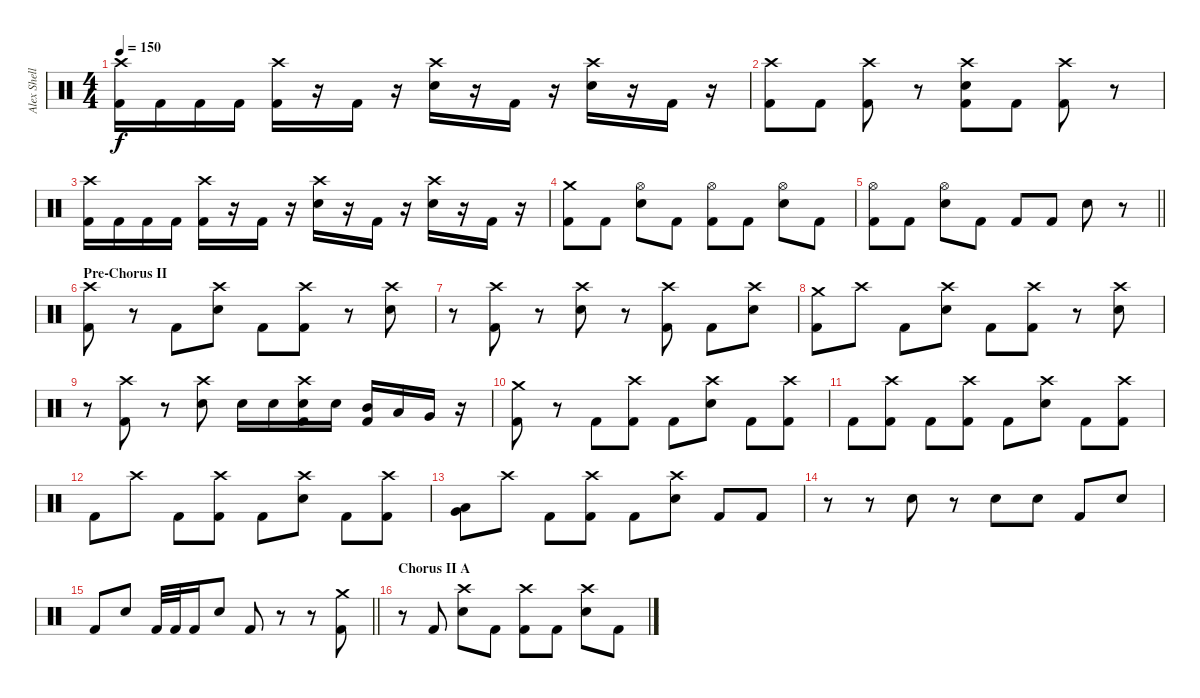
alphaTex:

\track ("Alex Shellnutt" "Alex Shell") {instrument percussion}
\staff {score}
\articulation defaults
\ts (4 4)
\tempo 150
\clef neutral
\ks c
("Crash high (hit)" "Kick (hit) 2").16{dy f} "Kick (hit) 2".16 "Kick (hit) 2".16 "Kick (hit) 2".16 ("Crash high (hit)" "Kick (hit) 2").16 r.16 "Kick (hit) 2".16 r.16 ("Crash high (hit)" "Snare (hit) 2").16 r.16 "Kick (hit) 2".16 r.16 ("Crash high (hit)" "Snare (hit) 2").16 r.16 "Kick (hit) 2".16 r.16 |
("Crash high (hit)" "Kick (hit) 2").8 "Kick (hit) 2".8 ("Crash high (hit)" "Kick (hit) 2").8 r.8 ("Crash high (hit)" "Snare (hit) 2" "Kick (hit) 2").8 "Kick (hit) 2".8 ("Crash high (hit)" "Kick (hit) 2").8 r.8 |
("Crash high (hit)" "Kick (hit) 2").16 "Kick (hit) 2".16 "Kick (hit) 2".16 "Kick (hit) 2".16 ("Crash high (hit)" "Kick (hit) 2").16 r.16 "Kick (hit) 2".16 r.16 ("Crash high (hit)" "Snare (hit) 2").16 r.16 "Kick (hit) 2".16 r.16 ("Crash high (hit)" "Snare (hit) 2").16 r.16 "Kick (hit) 2".16 r.16 |
("Crash medium (hit)" "Kick (hit) 2").8 "Kick (hit) 2".8 ("Hi-Hat (open)" "Snare (hit) 2").8 "Kick (hit) 2".8 ("Hi-Hat (open)" "Kick (hit) 2").8 "Kick (hit) 2".8 ("Hi-Hat (open)" "Snare (hit) 2").8 "Kick (hit) 2".8 |
\barLineRight lightlight
("Hi-Hat (open)" "Kick (hit) 2").8 "Kick (hit) 2".8 ("Hi-Hat (open)" "Snare (hit) 2").8 "Kick (hit) 2".8 "Kick (hit) 2".8 "Kick (hit) 2".8 "Snare (hit) 2".8 r.8 |
\section ("" "Pre-Chorus II")
("Crash high (hit)" "Kick (hit) 2").8 r.8 "Kick (hit) 2".8 ("Crash high (hit)" "Snare (hit) 2").8 "Kick (hit) 2".8 ("Crash high (hit)" "Kick (hit) 2").8 r.8 ("Crash high (hit)" "Snare (hit) 2").8 |
r.8 ("Crash high (hit)" "Kick (hit) 2").8 r.8 ("Crash high (hit)" "Snare (hit) 2").8 r.8 ("Crash high (hit)" "Kick (hit) 2").8 "Kick (hit) 2".8 ("Crash high (hit)" "Snare (hit) 2").8 |
("Crash medium (hit)" "Kick (hit) 2").8 "Crash high (hit)".8 "Kick (hit) 2".8 ("Crash high (hit)" "Snare (hit) 2").8 "Kick (hit) 2".8 ("Crash high (hit)" "Kick (hit) 2").8 r.8 ("Crash high (hit)" "Snare (hit) 2").8 |
r.8 ("Crash high (hit)" "Kick (hit) 2").8 r.8 ("Crash high (hit)" "Snare (hit) 2").8 "Snare (hit) 2".16 "Snare (hit) 2".16 ("Crash high (hit)" "Snare (hit) 2" "Kick (hit) 2").16 "Snare (hit) 2".16 ("Mid Tom (hit)" "Kick (hit) 2").16 "Low Tom (hit)".16 "Very Low Tom (hit)".16 r.16 |
("Crash medium (hit)" "Kick (hit) 2").8 r.8 "Kick (hit) 2".8 ("Crash high (hit)" "Kick (hit) 2").8 "Kick (hit) 2".8 ("Crash high (hit)" "Snare (hit) 2").8 "Kick (hit) 2".8 ("Crash high (hit)" "Kick (hit) 2").8 |
"Kick (hit) 2".8 ("Crash high (hit)" "Kick (hit) 2").8 "Kick (hit) 2".8 ("Crash high (hit)" "Kick (hit) 2").8 "Kick (hit) 2".8 ("Crash high (hit)" "Snare (hit) 2").8 "Kick (hit) 2".8 ("Crash high (hit)" "Kick (hit) 2").8 |
"Kick (hit) 2".8 "Crash high (hit)".8 "Kick (hit) 2".8 ("Crash high (hit)" "Kick (hit) 2").8 "Kick (hit) 2".8 ("Crash high (hit)" "Snare (hit) 2").8 "Kick (hit) 2".8 ("Crash high (hit)" "Kick (hit) 2").8 |
("Low Floor Tom (hit)" "Very Low Tom (hit)").8 "Crash high (hit)".8 "Kick (hit) 2".8 ("Crash high (hit)" "Kick (hit) 2").8 "Kick (hit) 2".8 ("Crash high (hit)" "Snare (hit) 2").8 "Kick (hit) 2".8 "Kick (hit) 2".8 |
r.8 r.8 "Snare (hit) 2".8 r.8 "Snare (hit) 2".8 "Snare (hit) 2".8 "Kick (hit) 2".8 "Snare (hit) 2".8 |
\barLineRight lightlight "Kick (hit) 2".8 "Snare (hit) 2".8 "Kick (hit) 2".32 "Kick (hit) 2".32 "Kick (hit) 2".16 "Snare (hit) 2".8 "Kick (hit) 2".8
r.8 r.8 ("Crash medium (hit)" "Kick (hit) 2").8 |
\section ("" "Chorus II A")
r.8 "Kick (hit) 2".8 ("Crash high (hit)" "Snare (hit) 2").8 "Kick (hit) 2".8 ("Crash high (hit)" "Kick (hit) 2").8 "Kick (hit) 2".8 ("Crash high (hit)" "Snare (hit) 2").8 "Kick (hit) 2".8
